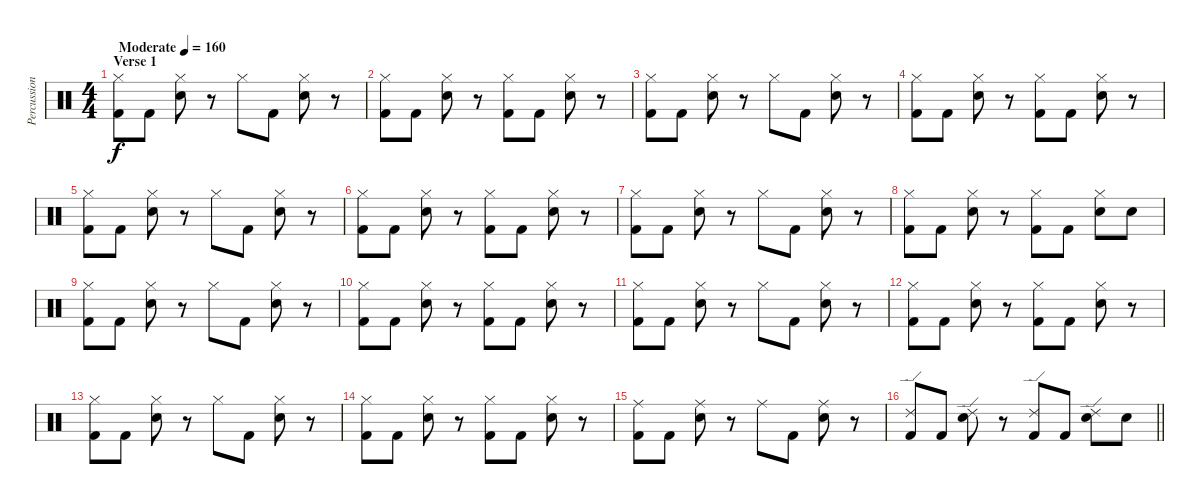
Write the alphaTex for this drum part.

\track ("Percussion" "Percussion") {instrument percussion}
\staff {score}
\articulation defaults
\ts (4 4)
\section ("" "Verse 1")
\tempo (160 "Moderate")
\clef neutral
\ks c
("Hi-Hat (closed)" "Kick (hit) 2").8{dy f} "Kick (hit) 2".8 ("Hi-Hat (closed)" "Snare (hit) 2").8 r.8 "Hi-Hat (closed)".8 "Kick (hit) 2".8 ("Hi-Hat (closed)" "Snare (hit) 2").8 r.8 |
("Hi-Hat (closed)" "Kick (hit) 2").8 "Kick (hit) 2".8 ("Hi-Hat (closed)" "Snare (hit) 2").8 r.8 ("Hi-Hat (closed)" "Kick (hit) 2").8 "Kick (hit) 2".8 ("Hi-Hat (closed)" "Snare (hit) 2").8 r.8 |
("Hi-Hat (closed)" "Kick (hit) 2").8 "Kick (hit) 2".8 ("Hi-Hat (closed)" "Snare (hit) 2").8 r.8 "Hi-Hat (closed)".8 "Kick (hit) 2".8 ("Hi-Hat (closed)" "Snare (hit) 2").8 r.8 |
("Hi-Hat (closed)" "Kick (hit) 2").8 "Kick (hit) 2".8 ("Hi-Hat (closed)" "Snare (hit) 2").8 r.8 ("Hi-Hat (closed)" "Kick (hit) 2").8 "Kick (hit) 2".8 ("Hi-Hat (closed)" "Snare (hit) 2").8 r.8 |
("Hi-Hat (closed)" "Kick (hit) 2").8 "Kick (hit) 2".8 ("Hi-Hat (closed)" "Snare (hit) 2").8 r.8 "Hi-Hat (closed)".8 "Kick (hit) 2".8 ("Hi-Hat (closed)" "Snare (hit) 2").8 r.8 |
("Hi-Hat (closed)" "Kick (hit) 2").8 "Kick (hit) 2".8 ("Hi-Hat (closed)" "Snare (hit) 2").8 r.8 ("Hi-Hat (closed)" "Kick (hit) 2").8 "Kick (hit) 2".8 ("Hi-Hat (closed)" "Snare (hit) 2").8 r.8 |
("Hi-Hat (closed)" "Kick (hit) 2").8 "Kick (hit) 2".8 ("Hi-Hat (closed)" "Snare (hit) 2").8 r.8 "Hi-Hat (closed)".8 "Kick (hit) 2".8 ("Hi-Hat (closed)" "Snare (hit) 2").8 r.8 |
("Hi-Hat (closed)" "Kick (hit) 2").8 "Kick (hit) 2".8 ("Hi-Hat (closed)" "Snare (hit) 2").8 r.8 ("Hi-Hat (closed)" "Kick (hit) 2").8 "Kick (hit) 2".8 ("Hi-Hat (closed)" "Snare (hit) 2").8 "Snare (hit) 2".8 |
("Hi-Hat (closed)" "Kick (hit) 2").8 "Kick (hit) 2".8 ("Hi-Hat (closed)" "Snare (hit) 2").8 r.8 "Hi-Hat (closed)".8 "Kick (hit) 2".8 ("Hi-Hat (closed)" "Snare (hit) 2").8 r.8 |
("Hi-Hat (closed)" "Kick (hit) 2").8 "Kick (hit) 2".8 ("Hi-Hat (closed)" "Snare (hit) 2").8 r.8 ("Hi-Hat (closed)" "Kick (hit) 2").8 "Kick (hit) 2".8 ("Hi-Hat (closed)" "Snare (hit) 2").8 r.8 |
("Hi-Hat (closed)" "Kick (hit) 2").8 "Kick (hit) 2".8 ("Hi-Hat (closed)" "Snare (hit) 2").8 r.8 "Hi-Hat (closed)".8 "Kick (hit) 2".8 ("Hi-Hat (closed)" "Snare (hit) 2").8 r.8 |
("Hi-Hat (closed)" "Kick (hit) 2").8 "Kick (hit) 2".8 ("Hi-Hat (closed)" "Snare (hit) 2").8 r.8 ("Hi-Hat (closed)" "Kick (hit) 2").8 "Kick (hit) 2".8 ("Hi-Hat (closed)" "Snare (hit) 2").8 r.8 |
("Hi-Hat (closed)" "Kick (hit) 2").8 "Kick (hit) 2".8 ("Hi-Hat (closed)" "Snare (hit) 2").8 r.8 "Hi-Hat (closed)".8 "Kick (hit) 2".8 ("Hi-Hat (closed)" "Snare (hit) 2").8 r.8 |
("Hi-Hat (closed)" "Kick (hit) 2").8 "Kick (hit) 2".8 ("Hi-Hat (closed)" "Snare (hit) 2").8 r.8 ("Hi-Hat (closed)" "Kick (hit) 2").8 "Kick (hit) 2".8 ("Hi-Hat (closed)" "Snare (hit) 2").8 r.8 |
("Ride (middle)" "Kick (hit) 2").8 "Kick (hit) 2".8 ("Ride (middle)" "Snare (hit) 2").8 r.8 "Ride (middle)".8 "Kick (hit) 2".8 ("Ride (middle)" "Snare (hit) 2").8 r.8 |
\barLineRight lightlight
("Ride (edge) 2" "Kick (hit) 2").8 "Kick (hit) 2".8 ("Ride (edge) 2" "Snare (hit) 2").8 r.8 ("Ride (edge) 2" "Kick (hit) 2").8 "Kick (hit) 2".8 ("Ride (edge) 2" "Snare (hit) 2").8 "Snare (hit) 2".8
